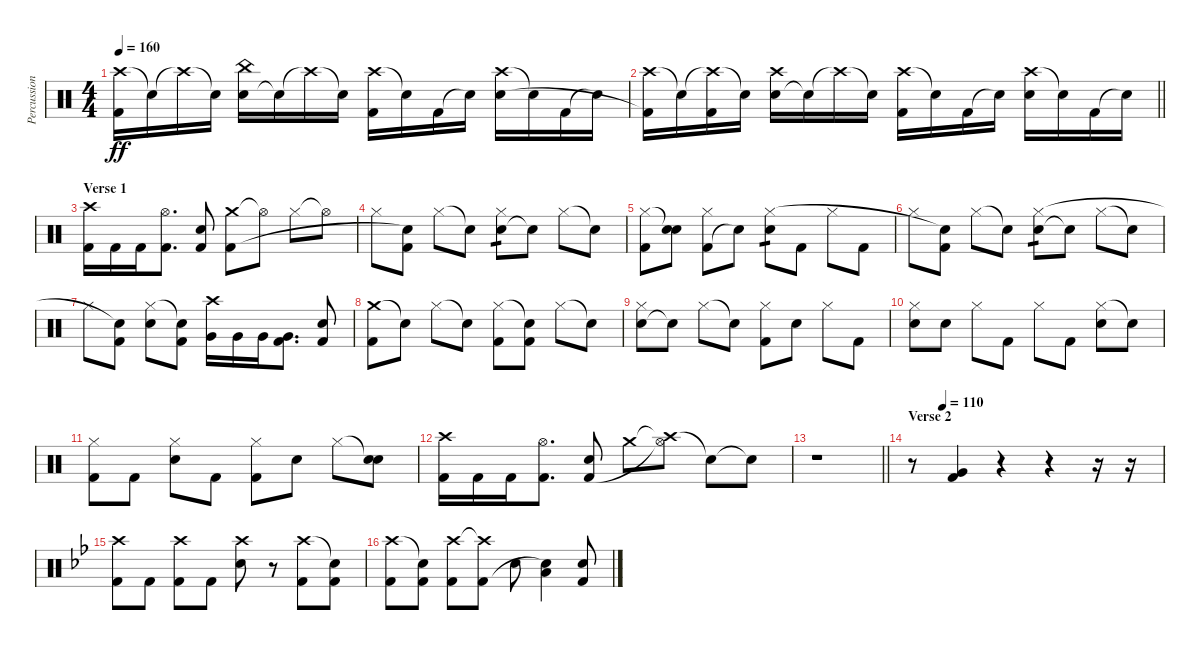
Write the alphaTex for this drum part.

\track ("Percussion" "Percussion") {instrument percussion}
\staff {score}
\articulation defaults
\ts (4 4)
\tempo 160
\clef neutral
\ks c
("Crash high (hit)" "Kick (hit) 2").16{dy ff} "Snare (hit)"{t}.16 "Crash high (hit)"{t}.16 "Snare (hit)"{t}.16 ("Electric Snare (hit)" "China (hit)").16 "Snare (hit)"{t}.16 "Crash high (hit)"{t}.16 "Snare (hit)"{t}.16 ("Crash high (hit)" "Kick (hit) 2").16 "Snare (hit)"{t}.16 "Kick (hit) 2".16 "Snare (hit)"{t}.16 ("Crash high (hit)" "Electric Snare (hit)").16 "Snare (hit)"{t}.16 "Kick (hit) 2".16 "Snare (hit)"{t}.16 |
\barLineRight lightlight
("Crash high (hit)" "Kick (hit) 2"{t}).16 "Snare (hit)"{t}.16 ("Crash high (hit)"{t} "Kick (hit) 2").16 "Snare (hit)"{t}.16 ("Electric Snare (hit)" "Crash high (hit)").16 "Snare (hit)"{t}.16 "Crash high (hit)"{t}.16 "Snare (hit)"{t}.16 ("Crash high (hit)" "Kick (hit) 2").16 "Snare (hit)"{t}.16 "Kick (hit) 2".16 "Snare (hit)"{t}.16 ("Crash high (hit)" "Electric Snare (hit)").16 "Snare (hit)"{t}.16 "Kick (hit) 2".16 "Snare (hit)"{t}.16 |
\section ("" "Verse 1")
("Crash high (hit)" "Kick (hit) 2").16 "Kick (hit) 2".16 "Kick (hit) 2".16 ("Hi-Hat (open)" "Kick (hit) 2").8{d} ("Electric Snare (hit)" "Kick (hit) 2").8 ("Crash medium (hit)" "Kick (hit) 2").8 "Hi-Hat (open)"{t}.8 "Hi-Hat (closed)".8 "Hi-Hat (open)"{t}.8 |
"Hi-Hat (closed)".8 ("Kick (hit) 2" "Snare (hit)"{t}).8 "Hi-Hat (closed)".8 "Snare (hit)"{t}.8 ("Electric Snare (hit)" "Hi-Hat (closed)").8{tp 1} "Snare (hit)"{t}.8 "Hi-Hat (closed)".8 "Snare (hit)"{t}.8 |
("Kick (hit) 2" "Hi-Hat (closed)").8 ("Electric Snare (hit)" "Snare (hit)"{t}).8 ("Kick (hit) 2" "Hi-Hat (closed)").8 "Snare (hit)"{t}.8 ("Electric Snare (hit)" "Hi-Hat (closed)").8{tp 1} "Kick (hit) 2".8 "Hi-Hat (closed)".8 "Kick (hit) 2".8 |
"Hi-Hat (closed)".8 ("Kick (hit) 2" "Snare (hit)"{t}).8 "Hi-Hat (closed)".8 "Snare (hit)"{t}.8 ("Electric Snare (hit)" "Hi-Hat (closed)").8{tp 1} "Snare (hit)"{t}.8 "Hi-Hat (closed)".8 "Snare (hit)"{t}.8 |
"Hi-Hat (closed)".8 ("Kick (hit) 2" "Snare (hit)"{t}).8 ("Electric Snare (hit)" "Hi-Hat (closed)").8 ("Kick (hit) 2" "Snare (hit)"{t}).8 ("Crash high (hit)" "Very Low Tom (hit)").16 "Very Low Tom (hit)".16 "Very Low Tom (hit)".16 ("Very Low Tom (hit)" "Kick (hit) 2").8{d} ("Kick (hit) 2" "Electric Snare (hit)").8 |
("Crash medium (hit)" "Kick (hit) 2").8 "Snare (hit)"{t}.8 "Hi-Hat (closed)".8 "Snare (hit)"{t}.8 ("Kick (hit) 2" "Hi-Hat (closed)").8 ("Kick (hit) 2" "Snare (hit)"{t}).8 "Hi-Hat (closed)".8 "Snare (hit)"{t}.8 |
("Electric Snare (hit)" "Hi-Hat (closed)").8 "Snare (hit)"{t}.8 "Hi-Hat (closed)".8 "Snare (hit)"{t}.8 ("Kick (hit) 2" "Hi-Hat (closed)").8 "Electric Snare (hit)".8 "Hi-Hat (closed)".8 "Kick (hit) 2".8 |
("Electric Snare (hit)" "Hi-Hat (closed)").8 "Electric Snare (hit)".8 "Hi-Hat (closed)".8 "Kick (hit) 2".8 "Hi-Hat (closed)".8 "Kick (hit) 2".8 ("Hi-Hat (closed)" "Electric Snare (hit)").8 "Snare (hit)"{t}.8 |
("Hi-Hat (closed)" "Kick (hit) 2").8 "Kick (hit) 2".8 ("Electric Snare (hit)" "Hi-Hat (closed)").8 "Kick (hit) 2".8 ("Hi-Hat (closed)" "Kick (hit) 2").8 "Electric Snare (hit)".8 "Hi-Hat (closed)".8 ("Snare (hit)"{t} "Electric Snare (hit)").8 |
("Crash high (hit)" "Kick (hit) 2").16 "Kick (hit) 2".16 "Kick (hit) 2".16 ("Hi-Hat (open)" "Kick (hit) 2").8{d} ("Electric Snare (hit)" "Kick (hit) 2").8 "Crash medium (hit)".8 ("Crash high (hit)"{t} "Hi-Hat (open)"{t}).8 "Snare (hit)"{t}.8 "Snare (hit)"{t}.8 |
\barLineRight lightlight
r.1 |
\section ("" "Verse 2")
\tempo (110 0.125)
r.8 ("Kick (hit) 2" "Very Low Tom (hit)").4 r.4 r.4 r.16 r.16 |
\ks bb
("Crash high (hit)" "Kick (hit) 2").8 "Kick (hit) 2".8 ("Crash high (hit)" "Kick (hit) 2").8 "Kick (hit) 2".8 ("Crash high (hit)" "Electric Snare (hit)").8 r.8 ("Crash high (hit)" "Kick (hit) 2").8 ("Snare (hit)"{t} "Kick (hit) 2").8 |
("Crash high (hit)" "Kick (hit) 2").8 ("Snare (hit)"{t} "Kick (hit) 2").8 ("Crash high (hit)" "Kick (hit) 2").8 ("Crash high (hit)"{t} "Kick (hit) 2").8 "Electric Snare (hit)".8 ("Low Tom (hit)" "Snare (hit)"{t}).4 ("Electric Snare (hit)" "Kick (hit) 2").8
